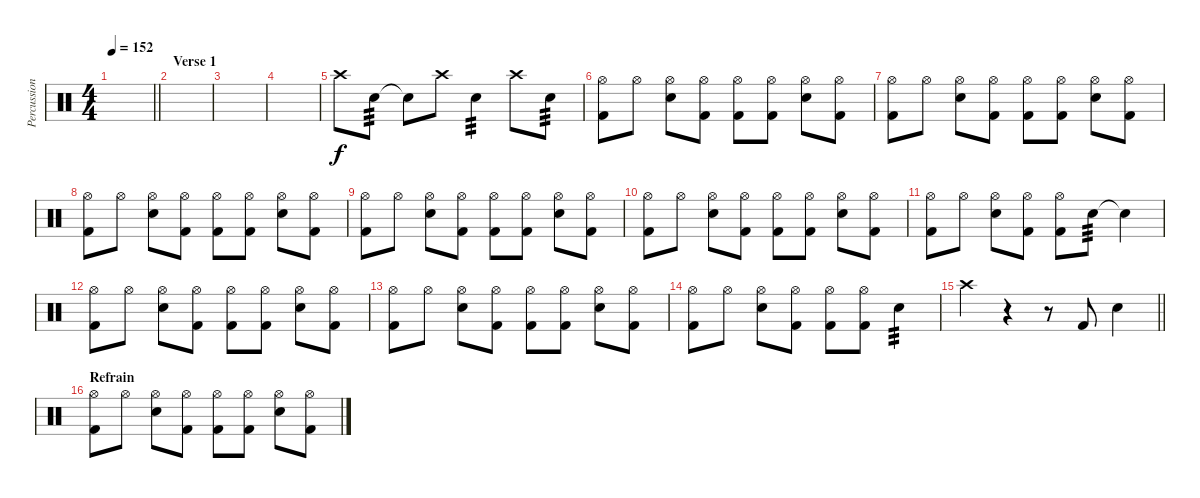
\track ("Percussion" "Percussion") {instrument percussion}
\staff {score}
\articulation defaults
\ts (4 4)
\tempo 152
\clef neutral
\barLineRight lightlight
\ks c
|
\section ("" "Verse 1")
|
|
|
"Crash high (hit)".8 "Snare (hit) 2".8{tp 3} "Snare (hit)"{t}.8 "Crash high (hit)".8 "Snare (hit) 2".4{tp 3} "Crash high (hit)".8 "Snare (hit) 2".8{tp 3} |
("Kick (hit) 2" "Hi-Hat (open)").8 "Hi-Hat (open)".8 ("Snare (hit) 2" "Hi-Hat (open)").8 ("Kick (hit) 2" "Hi-Hat (open)").8 ("Kick (hit) 2" "Hi-Hat (open)").8 ("Kick (hit) 2" "Hi-Hat (open)").8 ("Snare (hit) 2" "Hi-Hat (open)").8 ("Kick (hit) 2" "Hi-Hat (open)").8 |
("Kick (hit) 2" "Hi-Hat (open)").8 "Hi-Hat (open)".8 ("Snare (hit) 2" "Hi-Hat (open)").8 ("Kick (hit) 2" "Hi-Hat (open)").8 ("Kick (hit) 2" "Hi-Hat (open)").8 ("Kick (hit) 2" "Hi-Hat (open)").8 ("Snare (hit) 2" "Hi-Hat (open)").8 ("Kick (hit) 2" "Hi-Hat (open)").8 |
("Kick (hit) 2" "Hi-Hat (open)").8 "Hi-Hat (open)".8 ("Snare (hit) 2" "Hi-Hat (open)").8 ("Kick (hit) 2" "Hi-Hat (open)").8 ("Kick (hit) 2" "Hi-Hat (open)").8 ("Kick (hit) 2" "Hi-Hat (open)").8 ("Snare (hit) 2" "Hi-Hat (open)").8 ("Kick (hit) 2" "Hi-Hat (open)").8 |
("Kick (hit) 2" "Hi-Hat (open)").8 "Hi-Hat (open)".8 ("Snare (hit) 2" "Hi-Hat (open)").8 ("Kick (hit) 2" "Hi-Hat (open)").8 ("Kick (hit) 2" "Hi-Hat (open)").8 ("Kick (hit) 2" "Hi-Hat (open)").8 ("Snare (hit) 2" "Hi-Hat (open)").8 ("Kick (hit) 2" "Hi-Hat (open)").8 |
("Kick (hit) 2" "Hi-Hat (open)").8 "Hi-Hat (open)".8 ("Snare (hit) 2" "Hi-Hat (open)").8 ("Kick (hit) 2" "Hi-Hat (open)").8 ("Kick (hit) 2" "Hi-Hat (open)").8 ("Kick (hit) 2" "Hi-Hat (open)").8 ("Snare (hit) 2" "Hi-Hat (open)").8 ("Kick (hit) 2" "Hi-Hat (open)").8 |
("Kick (hit) 2" "Hi-Hat (open)").8 "Hi-Hat (open)".8 ("Snare (hit) 2" "Hi-Hat (open)").8 ("Kick (hit) 2" "Hi-Hat (open)").8 ("Kick (hit) 2" "Hi-Hat (open)").8 "Snare (hit) 2".8{tp 3} "Snare (hit)"{t}.4 |
("Kick (hit) 2" "Hi-Hat (open)").8 "Hi-Hat (open)".8 ("Snare (hit) 2" "Hi-Hat (open)").8 ("Kick (hit) 2" "Hi-Hat (open)").8 ("Kick (hit) 2" "Hi-Hat (open)").8 ("Kick (hit) 2" "Hi-Hat (open)").8 ("Snare (hit) 2" "Hi-Hat (open)").8 ("Kick (hit) 2" "Hi-Hat (open)").8 |
("Kick (hit) 2" "Hi-Hat (open)").8 "Hi-Hat (open)".8 ("Snare (hit) 2" "Hi-Hat (open)").8 ("Kick (hit) 2" "Hi-Hat (open)").8 ("Kick (hit) 2" "Hi-Hat (open)").8 ("Kick (hit) 2" "Hi-Hat (open)").8 ("Snare (hit) 2" "Hi-Hat (open)").8 ("Kick (hit) 2" "Hi-Hat (open)").8 |
("Kick (hit) 2" "Hi-Hat (open)").8 "Hi-Hat (open)".8 ("Snare (hit) 2" "Hi-Hat (open)").8 ("Kick (hit) 2" "Hi-Hat (open)").8 ("Kick (hit) 2" "Hi-Hat (open)").8 ("Kick (hit) 2" "Hi-Hat (open)").8 "Snare (hit) 2".4{tp 3} |
\barLineRight lightlight "Crash high (hit)".4
r.4 r.8 "Kick (hit) 2".8 "Snare (hit) 2".4 |
\section ("" "Refrain")
("Kick (hit) 2" "Hi-Hat (open)").8 "Hi-Hat (open)".8 ("Snare (hit) 2" "Hi-Hat (open)").8 ("Kick (hit) 2" "Hi-Hat (open)").8 ("Kick (hit) 2" "Hi-Hat (open)").8 ("Kick (hit) 2" "Hi-Hat (open)").8 ("Snare (hit) 2" "Hi-Hat (open)").8 ("Kick (hit) 2" "Hi-Hat (open)").8
